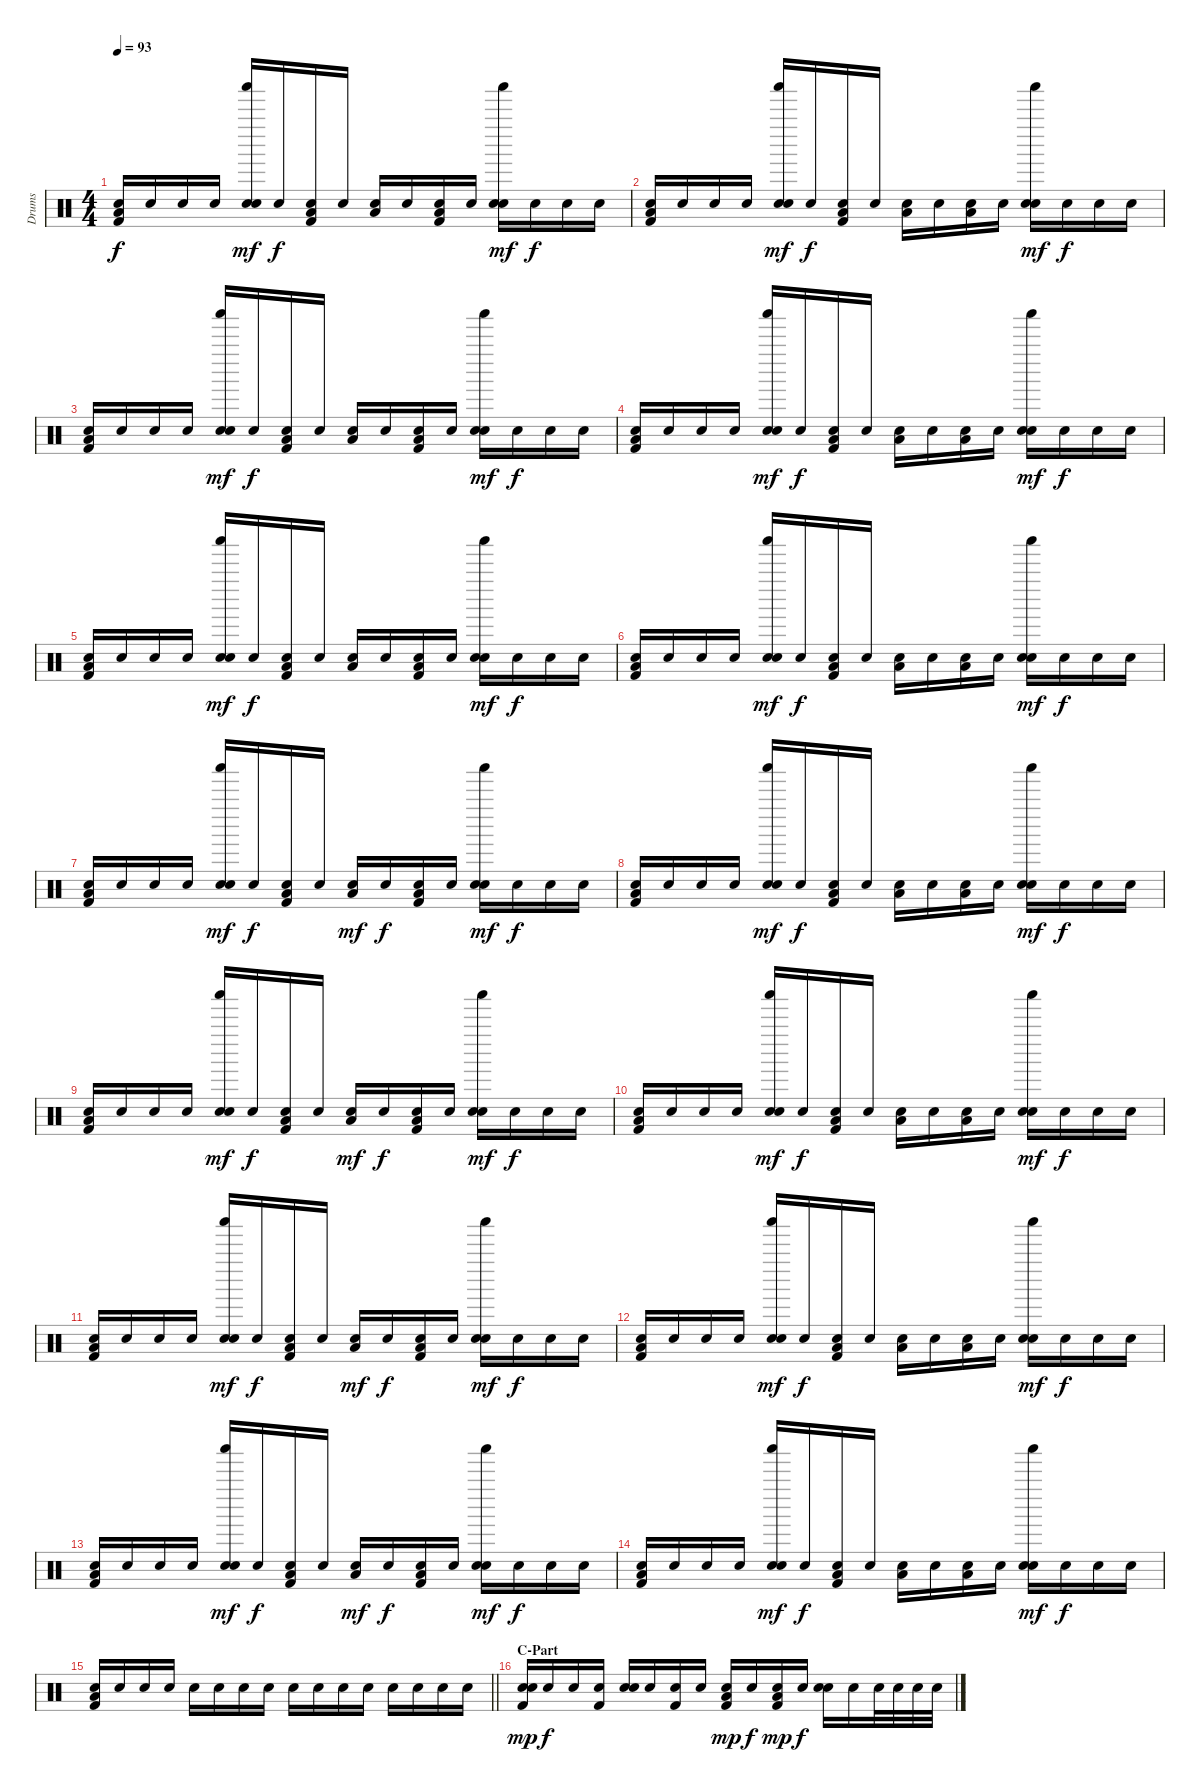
\track ("Drums" "Drums") {instrument percussion}
\staff {score}
\articulation defaults
\ts (4 4)
\tempo 93
\clef neutral
\ks c
("Snare (hit)" "Low Tom (hit)" "Kick (hit) 2").16{dy f} "Snare (hit)".16 "Snare (hit)".16 "Snare (hit)".16 ("Snare (hit)" "Shaker (hit)" "Electric Snare (hit)").16{dy mf} "Snare (hit)".16{dy f} ("Snare (hit)" "Low Tom (hit)" "Kick (hit) 2").16 "Snare (hit)".16 ("Snare (hit)" "Low Tom (hit)").16 "Snare (hit)".16 ("Snare (hit)" "Low Tom (hit)" "Kick (hit) 2").16 "Snare (hit)".16 ("Snare (hit)" "Shaker (hit)" "Electric Snare (hit)").16{dy mf} "Snare (hit)".16{dy f} "Snare (hit)".16 "Snare (hit)".16 |
("Snare (hit)" "Low Tom (hit)" "Kick (hit) 2").16 "Snare (hit)".16 "Snare (hit)".16 "Snare (hit)".16 ("Snare (hit)" "Shaker (hit)" "Electric Snare (hit)").16{dy mf} "Snare (hit)".16{dy f} ("Snare (hit)" "Low Tom (hit)" "Kick (hit) 2").16 "Snare (hit)".16 ("Snare (hit)" "Low Tom (hit)").16 "Snare (hit)".16 ("Snare (hit)" "Low Tom (hit)").16 "Snare (hit)".16 ("Snare (hit)" "Shaker (hit)" "Electric Snare (hit)").16{dy mf} "Snare (hit)".16{dy f} "Snare (hit)".16 "Snare (hit)".16 |
("Snare (hit)" "Low Tom (hit)" "Kick (hit) 2").16 "Snare (hit)".16 "Snare (hit)".16 "Snare (hit)".16 ("Snare (hit)" "Shaker (hit)" "Electric Snare (hit)").16{dy mf} "Snare (hit)".16{dy f} ("Snare (hit)" "Low Tom (hit)" "Kick (hit) 2").16 "Snare (hit)".16 ("Snare (hit)" "Low Tom (hit)").16 "Snare (hit)".16 ("Snare (hit)" "Low Tom (hit)" "Kick (hit) 2").16 "Snare (hit)".16 ("Snare (hit)" "Shaker (hit)" "Electric Snare (hit)").16{dy mf} "Snare (hit)".16{dy f} "Snare (hit)".16 "Snare (hit)".16 |
("Snare (hit)" "Low Tom (hit)" "Kick (hit) 2").16 "Snare (hit)".16 "Snare (hit)".16 "Snare (hit)".16 ("Snare (hit)" "Shaker (hit)" "Electric Snare (hit)").16{dy mf} "Snare (hit)".16{dy f} ("Snare (hit)" "Low Tom (hit)" "Kick (hit) 2").16 "Snare (hit)".16 ("Snare (hit)" "Low Tom (hit)").16 "Snare (hit)".16 ("Snare (hit)" "Low Tom (hit)").16 "Snare (hit)".16 ("Snare (hit)" "Shaker (hit)" "Electric Snare (hit)").16{dy mf} "Snare (hit)".16{dy f} "Snare (hit)".16 "Snare (hit)".16 |
("Snare (hit)" "Low Tom (hit)" "Kick (hit) 2").16 "Snare (hit)".16 "Snare (hit)".16 "Snare (hit)".16 ("Snare (hit)" "Shaker (hit)" "Electric Snare (hit)").16{dy mf} "Snare (hit)".16{dy f} ("Snare (hit)" "Low Tom (hit)" "Kick (hit) 2").16 "Snare (hit)".16 ("Snare (hit)" "Low Tom (hit)").16 "Snare (hit)".16 ("Snare (hit)" "Low Tom (hit)" "Kick (hit) 2").16 "Snare (hit)".16 ("Snare (hit)" "Shaker (hit)" "Electric Snare (hit)").16{dy mf} "Snare (hit)".16{dy f} "Snare (hit)".16 "Snare (hit)".16 |
("Snare (hit)" "Low Tom (hit)" "Kick (hit) 2").16 "Snare (hit)".16 "Snare (hit)".16 "Snare (hit)".16 ("Snare (hit)" "Shaker (hit)" "Electric Snare (hit)").16{dy mf} "Snare (hit)".16{dy f} ("Snare (hit)" "Low Tom (hit)" "Kick (hit) 2").16 "Snare (hit)".16 ("Snare (hit)" "Low Tom (hit)").16 "Snare (hit)".16 ("Snare (hit)" "Low Tom (hit)").16 "Snare (hit)".16 ("Snare (hit)" "Shaker (hit)" "Electric Snare (hit)").16{dy mf} "Snare (hit)".16{dy f} "Snare (hit)".16 "Snare (hit)".16 |
("Snare (hit)" "Low Tom (hit)" "Kick (hit) 2").16 "Snare (hit)".16 "Snare (hit)".16 "Snare (hit)".16 ("Snare (hit)" "Shaker (hit)" "Electric Snare (hit)").16{dy mf} "Snare (hit)".16{dy f} ("Snare (hit)" "Low Tom (hit)" "Kick (hit) 2").16 "Snare (hit)".16 ("Snare (hit)" "Low Tom (hit)").16{dy mf} "Snare (hit)".16{dy f} ("Snare (hit)" "Low Tom (hit)" "Kick (hit) 2").16 "Snare (hit)".16 ("Snare (hit)" "Shaker (hit)" "Electric Snare (hit)").16{dy mf} "Snare (hit)".16{dy f} "Snare (hit)".16 "Snare (hit)".16 |
("Snare (hit)" "Low Tom (hit)" "Kick (hit) 2").16 "Snare (hit)".16 "Snare (hit)".16 "Snare (hit)".16 ("Snare (hit)" "Shaker (hit)" "Electric Snare (hit)").16{dy mf} "Snare (hit)".16{dy f} ("Snare (hit)" "Low Tom (hit)" "Kick (hit) 2").16 "Snare (hit)".16 ("Snare (hit)" "Low Tom (hit)").16 "Snare (hit)".16 ("Snare (hit)" "Low Tom (hit)").16 "Snare (hit)".16 ("Snare (hit)" "Shaker (hit)" "Electric Snare (hit)").16{dy mf} "Snare (hit)".16{dy f} "Snare (hit)".16 "Snare (hit)".16 |
("Snare (hit)" "Low Tom (hit)" "Kick (hit) 2").16 "Snare (hit)".16 "Snare (hit)".16 "Snare (hit)".16 ("Snare (hit)" "Shaker (hit)" "Electric Snare (hit)").16{dy mf} "Snare (hit)".16{dy f} ("Snare (hit)" "Low Tom (hit)" "Kick (hit) 2").16 "Snare (hit)".16 ("Snare (hit)" "Low Tom (hit)").16{dy mf} "Snare (hit)".16{dy f} ("Snare (hit)" "Low Tom (hit)" "Kick (hit) 2").16 "Snare (hit)".16 ("Snare (hit)" "Shaker (hit)" "Electric Snare (hit)").16{dy mf} "Snare (hit)".16{dy f} "Snare (hit)".16 "Snare (hit)".16 |
("Snare (hit)" "Low Tom (hit)" "Kick (hit) 2").16 "Snare (hit)".16 "Snare (hit)".16 "Snare (hit)".16 ("Snare (hit)" "Shaker (hit)" "Electric Snare (hit)").16{dy mf} "Snare (hit)".16{dy f} ("Snare (hit)" "Low Tom (hit)" "Kick (hit) 2").16 "Snare (hit)".16 ("Snare (hit)" "Low Tom (hit)").16 "Snare (hit)".16 ("Snare (hit)" "Low Tom (hit)").16 "Snare (hit)".16 ("Snare (hit)" "Shaker (hit)" "Electric Snare (hit)").16{dy mf} "Snare (hit)".16{dy f} "Snare (hit)".16 "Snare (hit)".16 |
("Snare (hit)" "Low Tom (hit)" "Kick (hit) 2").16 "Snare (hit)".16 "Snare (hit)".16 "Snare (hit)".16 ("Snare (hit)" "Shaker (hit)" "Electric Snare (hit)").16{dy mf} "Snare (hit)".16{dy f} ("Snare (hit)" "Low Tom (hit)" "Kick (hit) 2").16 "Snare (hit)".16 ("Snare (hit)" "Low Tom (hit)").16{dy mf} "Snare (hit)".16{dy f} ("Snare (hit)" "Low Tom (hit)" "Kick (hit) 2").16 "Snare (hit)".16 ("Snare (hit)" "Shaker (hit)" "Electric Snare (hit)").16{dy mf} "Snare (hit)".16{dy f} "Snare (hit)".16 "Snare (hit)".16 |
("Snare (hit)" "Low Tom (hit)" "Kick (hit) 2").16 "Snare (hit)".16 "Snare (hit)".16 "Snare (hit)".16 ("Snare (hit)" "Shaker (hit)" "Electric Snare (hit)").16{dy mf} "Snare (hit)".16{dy f} ("Snare (hit)" "Low Tom (hit)" "Kick (hit) 2").16 "Snare (hit)".16 ("Snare (hit)" "Low Tom (hit)").16 "Snare (hit)".16 ("Snare (hit)" "Low Tom (hit)").16 "Snare (hit)".16 ("Snare (hit)" "Shaker (hit)" "Electric Snare (hit)").16{dy mf} "Snare (hit)".16{dy f} "Snare (hit)".16 "Snare (hit)".16 |
("Snare (hit)" "Low Tom (hit)" "Kick (hit) 2").16 "Snare (hit)".16 "Snare (hit)".16 "Snare (hit)".16 ("Snare (hit)" "Shaker (hit)" "Electric Snare (hit)").16{dy mf} "Snare (hit)".16{dy f} ("Snare (hit)" "Low Tom (hit)" "Kick (hit) 2").16 "Snare (hit)".16 ("Snare (hit)" "Low Tom (hit)").16{dy mf} "Snare (hit)".16{dy f} ("Snare (hit)" "Low Tom (hit)" "Kick (hit) 2").16 "Snare (hit)".16 ("Snare (hit)" "Shaker (hit)" "Electric Snare (hit)").16{dy mf} "Snare (hit)".16{dy f} "Snare (hit)".16 "Snare (hit)".16 |
("Snare (hit)" "Low Tom (hit)" "Kick (hit) 2").16 "Snare (hit)".16 "Snare (hit)".16 "Snare (hit)".16 ("Snare (hit)" "Shaker (hit)" "Electric Snare (hit)").16{dy mf} "Snare (hit)".16{dy f} ("Snare (hit)" "Low Tom (hit)" "Kick (hit) 2").16 "Snare (hit)".16 ("Snare (hit)" "Low Tom (hit)").16 "Snare (hit)".16 ("Snare (hit)" "Low Tom (hit)").16 "Snare (hit)".16 ("Snare (hit)" "Shaker (hit)" "Electric Snare (hit)").16{dy mf} "Snare (hit)".16{dy f} "Snare (hit)".16 "Snare (hit)".16 |
\barLineRight lightlight
("Snare (hit)" "Low Tom (hit)" "Kick (hit) 2").16 "Snare (hit)".16 "Snare (hit)".16 "Snare (hit)".16 "Snare (hit)".16 "Snare (hit)".16 "Snare (hit)".16 "Snare (hit)".16 "Snare (hit)".16 "Snare (hit)".16 "Snare (hit)".16 "Snare (hit)".16 "Snare (hit)".16 "Snare (hit)".16 "Snare (hit)".16 "Snare (hit)".16 |
\section ("" "C-Part")
("Snare (hit)" "Electric Snare (hit)" "Kick (hit) 2").16{dy mp} "Snare (hit)".16{dy f} "Snare (hit)".16 ("Snare (hit)" "Kick (hit) 2").16 ("Snare (hit)" "Electric Snare (hit)").16 "Snare (hit)".16 ("Snare (hit)" "Kick (hit) 2").16 "Snare (hit)".16 ("Snare (hit)" "Low Tom (hit)" "Kick (hit) 2").16{dy mp} "Snare (hit)".16{dy f} ("Snare (hit)" "Low Tom (hit)" "Kick (hit) 2").16{dy mp} "Snare (hit)".16{dy f} ("Snare (hit)" "Electric Snare (hit)").16 "Snare (hit)".16 "Snare (hit)".32 "Snare (hit)".32 "Snare (hit)".32 "Snare (hit)".32
